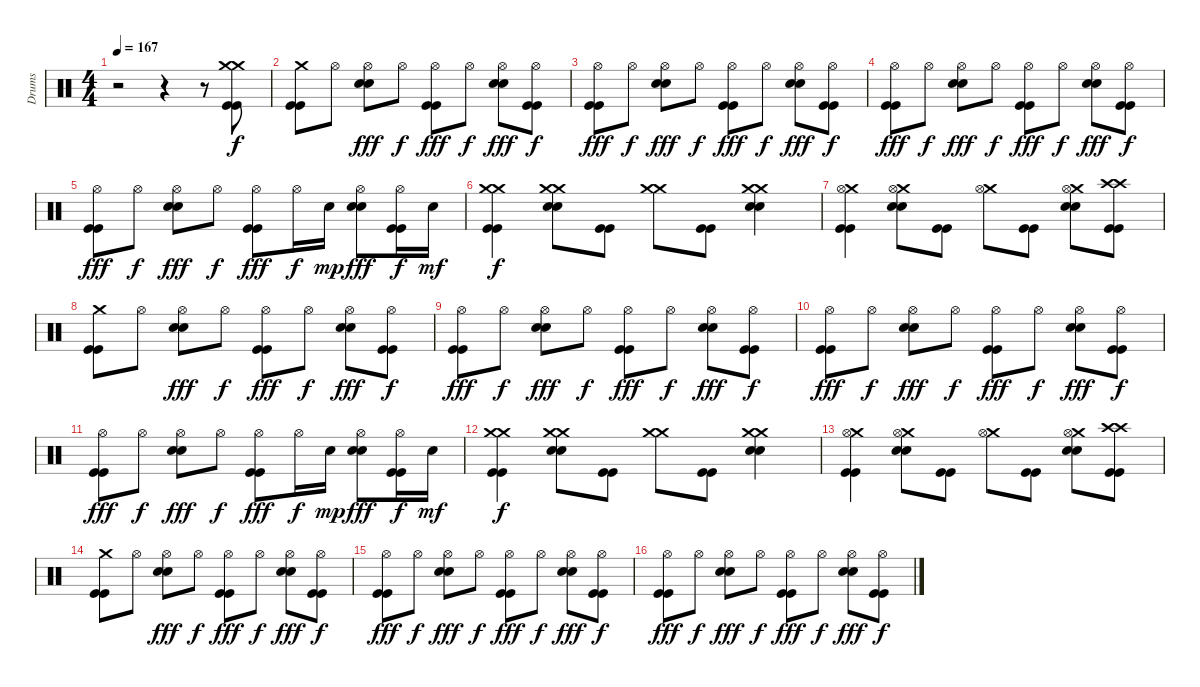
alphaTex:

\track ("Drums" "Drums") {instrument percussion}
\staff {score}
\articulation defaults
\ts (4 4)
\tempo 167
\clef neutral
\ks c
r.2{dy f} r.4 r.8 ("Crash medium (hit)" "Crash medium (hit)" "Kick (hit)" "Kick (hit)").8 |
("Crash medium (hit)" "Kick (hit)" "Kick (hit)").8 "Hi-Hat (open)".8 ("Hi-Hat (open)" "Snare (hit) 2" "Snare (hit) 2").8{dy fff} "Hi-Hat (open)".8{dy f} ("Hi-Hat (open)" "Kick (hit)" "Kick (hit)").8{dy fff} "Hi-Hat (open)".8{dy f} ("Hi-Hat (open)" "Snare (hit) 2" "Snare (hit) 2").8{dy fff} ("Hi-Hat (open)" "Kick (hit)" "Kick (hit)").8{dy f} |
("Hi-Hat (open)" "Kick (hit)" "Kick (hit)").8{dy fff} "Hi-Hat (open)".8{dy f} ("Hi-Hat (open)" "Snare (hit) 2" "Snare (hit) 2").8{dy fff} "Hi-Hat (open)".8{dy f} ("Hi-Hat (open)" "Kick (hit)" "Kick (hit)").8{dy fff} "Hi-Hat (open)".8{dy f} ("Hi-Hat (open)" "Snare (hit) 2" "Snare (hit) 2").8{dy fff} ("Hi-Hat (open)" "Kick (hit)" "Kick (hit)").8{dy f} |
("Hi-Hat (open)" "Kick (hit)" "Kick (hit)").8{dy fff} "Hi-Hat (open)".8{dy f} ("Hi-Hat (open)" "Snare (hit) 2" "Snare (hit) 2").8{dy fff} "Hi-Hat (open)".8{dy f} ("Hi-Hat (open)" "Kick (hit)" "Kick (hit)").8{dy fff} "Hi-Hat (open)".8{dy f} ("Hi-Hat (open)" "Snare (hit) 2" "Snare (hit) 2").8{dy fff} ("Hi-Hat (open)" "Kick (hit)" "Kick (hit)").8{dy f} |
("Hi-Hat (open)" "Kick (hit)" "Kick (hit)").8{dy fff} "Hi-Hat (open)".8{dy f} ("Hi-Hat (open)" "Snare (hit) 2" "Snare (hit) 2").8{dy fff} "Hi-Hat (open)".8{dy f} ("Hi-Hat (open)" "Kick (hit)" "Kick (hit)").8{dy fff} "Hi-Hat (open)".16{dy f} "Snare (hit) 2".16{dy mp} ("Hi-Hat (open)" "Snare (hit) 2" "Snare (hit) 2").8{dy fff} ("Hi-Hat (open)" "Kick (hit)" "Kick (hit)").16{dy f} "Snare (hit) 2".16{dy mf} |
("Crash medium (hit)" "Crash medium (hit)" "Kick (hit)" "Kick (hit)").4{dy f} ("Crash medium (hit)" "Snare (hit) 2" "Snare (hit) 2" "Crash medium (hit)").8 ("Kick (hit)" "Kick (hit)").8 ("Crash medium (hit)" "Crash medium (hit)").8 ("Kick (hit)" "Kick (hit)").8 ("Crash medium (hit)" "Snare (hit) 2" "Snare (hit) 2" "Crash medium (hit)").4 |
("Crash medium (hit)" "Hi-Hat (open)" "Kick (hit)" "Kick (hit)").4 ("Crash medium (hit)" "Snare (hit) 2" "Snare (hit) 2" "Hi-Hat (open)").8 ("Kick (hit)" "Kick (hit)").8 ("Crash medium (hit)" "Hi-Hat (open)").8 ("Kick (hit)" "Kick (hit)").8 ("Crash medium (hit)" "Snare (hit) 2" "Snare (hit) 2" "Hi-Hat (open)").8 ("Crash high (hit)" "Crash high (hit)" "Kick (hit)" "Kick (hit)").8 |
("Crash medium (hit)" "Kick (hit)" "Kick (hit)").8 "Hi-Hat (open)".8 ("Hi-Hat (open)" "Snare (hit) 2" "Snare (hit) 2").8{dy fff} "Hi-Hat (open)".8{dy f} ("Hi-Hat (open)" "Kick (hit)" "Kick (hit)").8{dy fff} "Hi-Hat (open)".8{dy f} ("Hi-Hat (open)" "Snare (hit) 2" "Snare (hit) 2").8{dy fff} ("Hi-Hat (open)" "Kick (hit)" "Kick (hit)").8{dy f} |
("Hi-Hat (open)" "Kick (hit)" "Kick (hit)").8{dy fff} "Hi-Hat (open)".8{dy f} ("Hi-Hat (open)" "Snare (hit) 2" "Snare (hit) 2").8{dy fff} "Hi-Hat (open)".8{dy f} ("Hi-Hat (open)" "Kick (hit)" "Kick (hit)").8{dy fff} "Hi-Hat (open)".8{dy f} ("Hi-Hat (open)" "Snare (hit) 2" "Snare (hit) 2").8{dy fff} ("Hi-Hat (open)" "Kick (hit)" "Kick (hit)").8{dy f} |
("Hi-Hat (open)" "Kick (hit)" "Kick (hit)").8{dy fff} "Hi-Hat (open)".8{dy f} ("Hi-Hat (open)" "Snare (hit) 2" "Snare (hit) 2").8{dy fff} "Hi-Hat (open)".8{dy f} ("Hi-Hat (open)" "Kick (hit)" "Kick (hit)").8{dy fff} "Hi-Hat (open)".8{dy f} ("Hi-Hat (open)" "Snare (hit) 2" "Snare (hit) 2").8{dy fff} ("Hi-Hat (open)" "Kick (hit)" "Kick (hit)").8{dy f} |
("Hi-Hat (open)" "Kick (hit)" "Kick (hit)").8{dy fff} "Hi-Hat (open)".8{dy f} ("Hi-Hat (open)" "Snare (hit) 2" "Snare (hit) 2").8{dy fff} "Hi-Hat (open)".8{dy f} ("Hi-Hat (open)" "Kick (hit)" "Kick (hit)").8{dy fff} "Hi-Hat (open)".16{dy f} "Snare (hit) 2".16{dy mp} ("Hi-Hat (open)" "Snare (hit) 2" "Snare (hit) 2").8{dy fff} ("Hi-Hat (open)" "Kick (hit)" "Kick (hit)").16{dy f} "Snare (hit) 2".16{dy mf} |
("Crash medium (hit)" "Crash medium (hit)" "Kick (hit)" "Kick (hit)").4{dy f} ("Crash medium (hit)" "Snare (hit) 2" "Snare (hit) 2" "Crash medium (hit)").8 ("Kick (hit)" "Kick (hit)").8 ("Crash medium (hit)" "Crash medium (hit)").8 ("Kick (hit)" "Kick (hit)").8 ("Crash medium (hit)" "Snare (hit) 2" "Snare (hit) 2" "Crash medium (hit)").4 |
("Crash medium (hit)" "Hi-Hat (open)" "Kick (hit)" "Kick (hit)").4 ("Crash medium (hit)" "Snare (hit) 2" "Snare (hit) 2" "Hi-Hat (open)").8 ("Kick (hit)" "Kick (hit)").8 ("Crash medium (hit)" "Hi-Hat (open)").8 ("Kick (hit)" "Kick (hit)").8 ("Crash medium (hit)" "Snare (hit) 2" "Snare (hit) 2" "Hi-Hat (open)").8 ("Crash high (hit)" "Crash high (hit)" "Kick (hit)" "Kick (hit)").8 |
("Crash medium (hit)" "Kick (hit)" "Kick (hit)").8 "Hi-Hat (open)".8 ("Hi-Hat (open)" "Snare (hit) 2" "Snare (hit) 2").8{dy fff} "Hi-Hat (open)".8{dy f} ("Hi-Hat (open)" "Kick (hit)" "Kick (hit)").8{dy fff} "Hi-Hat (open)".8{dy f} ("Hi-Hat (open)" "Snare (hit) 2" "Snare (hit) 2").8{dy fff} ("Hi-Hat (open)" "Kick (hit)" "Kick (hit)").8{dy f} |
("Hi-Hat (open)" "Kick (hit)" "Kick (hit)").8{dy fff} "Hi-Hat (open)".8{dy f} ("Hi-Hat (open)" "Snare (hit) 2" "Snare (hit) 2").8{dy fff} "Hi-Hat (open)".8{dy f} ("Hi-Hat (open)" "Kick (hit)" "Kick (hit)").8{dy fff} "Hi-Hat (open)".8{dy f} ("Hi-Hat (open)" "Snare (hit) 2" "Snare (hit) 2").8{dy fff} ("Hi-Hat (open)" "Kick (hit)" "Kick (hit)").8{dy f} |
("Hi-Hat (open)" "Kick (hit)" "Kick (hit)").8{dy fff} "Hi-Hat (open)".8{dy f} ("Hi-Hat (open)" "Snare (hit) 2" "Snare (hit) 2").8{dy fff} "Hi-Hat (open)".8{dy f} ("Hi-Hat (open)" "Kick (hit)" "Kick (hit)").8{dy fff} "Hi-Hat (open)".8{dy f} ("Hi-Hat (open)" "Snare (hit) 2" "Snare (hit) 2").8{dy fff} ("Hi-Hat (open)" "Kick (hit)" "Kick (hit)").8{dy f}
